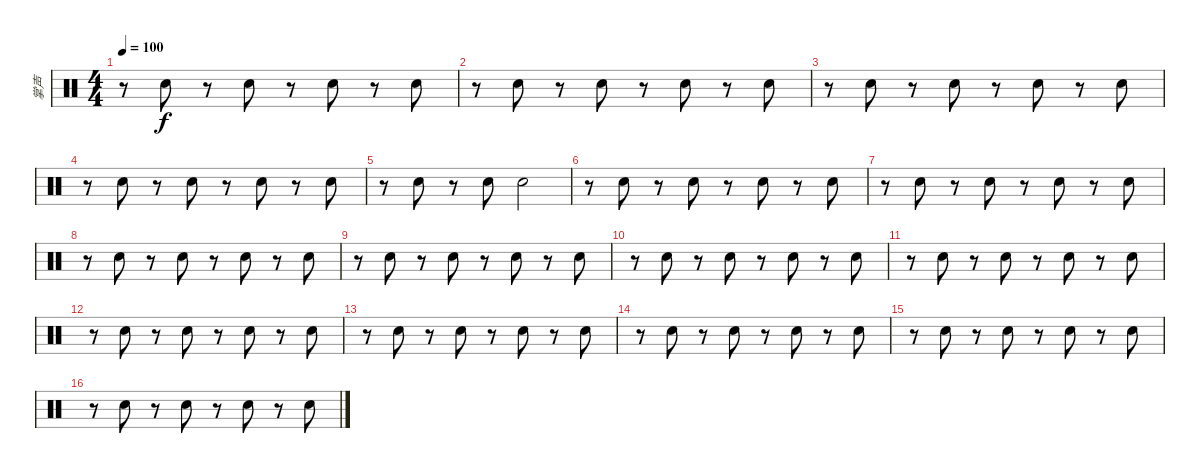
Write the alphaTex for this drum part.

\track ("掌声" "掌声") {instrument percussion}
\staff {score}
\articulation defaults
\ts (4 4)
\tempo 100
\clef neutral
\ks c
r.8{dy f} "Hand Clap (hit)".8 r.8 "Hand Clap (hit)".8 r.8 "Hand Clap (hit)".8 r.8 "Hand Clap (hit)".8 |
r.8 "Hand Clap (hit)".8 r.8 "Hand Clap (hit)".8 r.8 "Hand Clap (hit)".8 r.8 "Hand Clap (hit)".8 |
r.8 "Hand Clap (hit)".8 r.8 "Hand Clap (hit)".8 r.8 "Hand Clap (hit)".8 r.8 "Hand Clap (hit)".8 |
r.8 "Hand Clap (hit)".8 r.8 "Hand Clap (hit)".8 r.8 "Hand Clap (hit)".8 r.8 "Hand Clap (hit)".8 |
r.8 "Hand Clap (hit)".8 r.8 "Hand Clap (hit)".8 "Hand Clap (hit)".2 |
r.8 "Hand Clap (hit)".8 r.8 "Hand Clap (hit)".8 r.8 "Hand Clap (hit)".8 r.8 "Hand Clap (hit)".8 |
r.8 "Hand Clap (hit)".8 r.8 "Hand Clap (hit)".8 r.8 "Hand Clap (hit)".8 r.8 "Hand Clap (hit)".8 |
r.8 "Hand Clap (hit)".8 r.8 "Hand Clap (hit)".8 r.8 "Hand Clap (hit)".8 r.8 "Hand Clap (hit)".8 |
r.8 "Hand Clap (hit)".8 r.8 "Hand Clap (hit)".8 r.8 "Hand Clap (hit)".8 r.8 "Hand Clap (hit)".8 |
r.8 "Hand Clap (hit)".8 r.8 "Hand Clap (hit)".8 r.8 "Hand Clap (hit)".8 r.8 "Hand Clap (hit)".8 |
r.8 "Hand Clap (hit)".8 r.8 "Hand Clap (hit)".8 r.8 "Hand Clap (hit)".8 r.8 "Hand Clap (hit)".8 |
r.8 "Hand Clap (hit)".8 r.8 "Hand Clap (hit)".8 r.8 "Hand Clap (hit)".8 r.8 "Hand Clap (hit)".8 |
r.8 "Hand Clap (hit)".8 r.8 "Hand Clap (hit)".8 r.8 "Hand Clap (hit)".8 r.8 "Hand Clap (hit)".8 |
r.8 "Hand Clap (hit)".8 r.8 "Hand Clap (hit)".8 r.8 "Hand Clap (hit)".8 r.8 "Hand Clap (hit)".8 |
r.8 "Hand Clap (hit)".8 r.8 "Hand Clap (hit)".8 r.8 "Hand Clap (hit)".8 r.8 "Hand Clap (hit)".8 |
r.8 "Hand Clap (hit)".8 r.8 "Hand Clap (hit)".8 r.8 "Hand Clap (hit)".8 r.8 "Hand Clap (hit)".8
